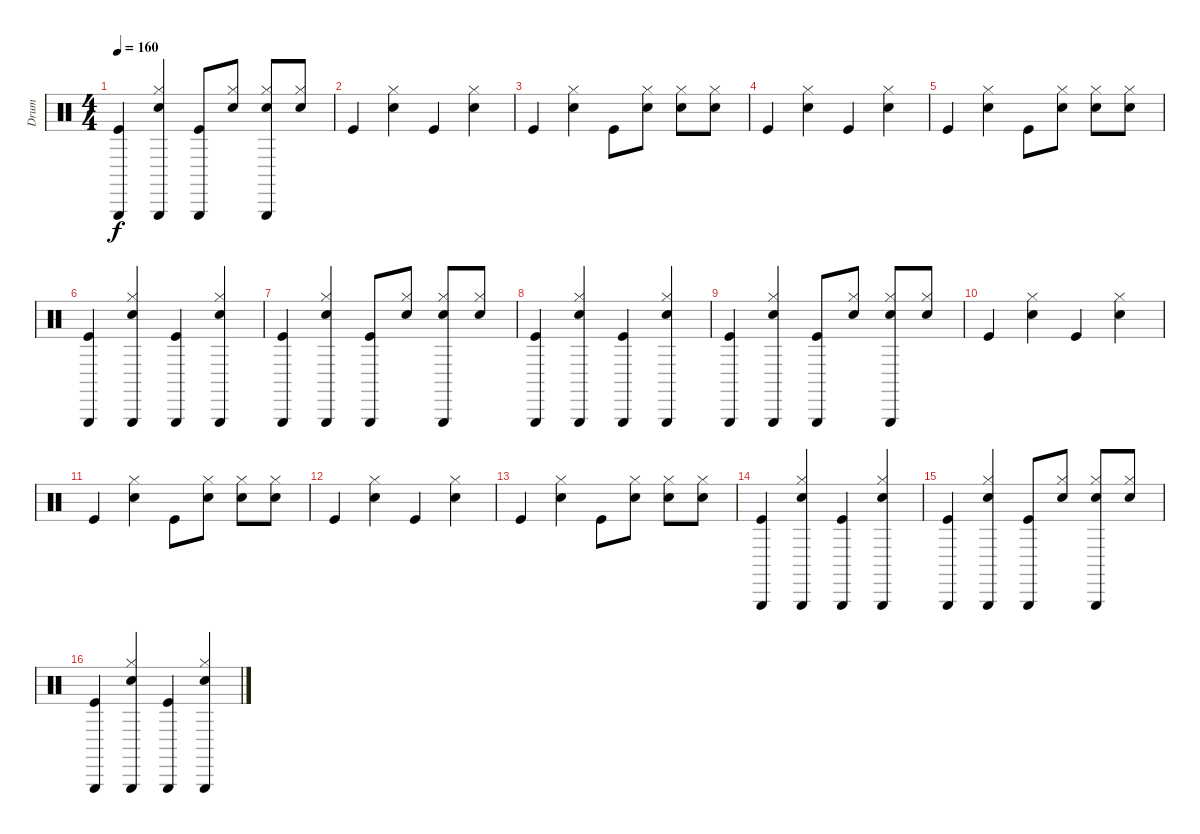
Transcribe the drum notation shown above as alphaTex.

\track ("Drum" "Drum") {instrument percussion}
\staff {score}
\articulation defaults
\ts (4 4)
\tempo 160
\clef neutral
\ks c
("Triangle (hit)" "Kick (hit)").4{dy f} ("Triangle (hit)" "Hi-Hat (closed)" "Snare (hit) 2").4 ("Triangle (hit)" "Kick (hit)").8 ("Hi-Hat (closed)" "Snare (hit) 2").8 ("Triangle (hit)" "Hi-Hat (closed)" "Snare (hit) 2").8 ("Hi-Hat (closed)" "Snare (hit) 2").8 |
"Kick (hit)".4 ("Hi-Hat (closed)" "Snare (hit) 2").4 "Kick (hit)".4 ("Hi-Hat (closed)" "Snare (hit) 2").4 |
"Kick (hit)".4 ("Hi-Hat (closed)" "Snare (hit) 2").4 "Kick (hit)".8 ("Hi-Hat (closed)" "Snare (hit) 2").8 ("Hi-Hat (closed)" "Snare (hit) 2").8 ("Hi-Hat (closed)" "Snare (hit) 2").8 |
"Kick (hit)".4 ("Hi-Hat (closed)" "Snare (hit) 2").4 "Kick (hit)".4 ("Hi-Hat (closed)" "Snare (hit) 2").4 |
"Kick (hit)".4 ("Hi-Hat (closed)" "Snare (hit) 2").4 "Kick (hit)".8 ("Hi-Hat (closed)" "Snare (hit) 2").8 ("Hi-Hat (closed)" "Snare (hit) 2").8 ("Hi-Hat (closed)" "Snare (hit) 2").8 |
("Triangle (hit)" "Kick (hit)").4 ("Triangle (hit)" "Hi-Hat (closed)" "Snare (hit) 2").4 ("Triangle (hit)" "Kick (hit)").4 ("Triangle (hit)" "Hi-Hat (closed)" "Snare (hit) 2").4 |
("Triangle (hit)" "Kick (hit)").4 ("Triangle (hit)" "Hi-Hat (closed)" "Snare (hit) 2").4 ("Triangle (hit)" "Kick (hit)").8 ("Hi-Hat (closed)" "Snare (hit) 2").8 ("Triangle (hit)" "Hi-Hat (closed)" "Snare (hit) 2").8 ("Hi-Hat (closed)" "Snare (hit) 2").8 |
("Triangle (hit)" "Kick (hit)").4 ("Triangle (hit)" "Hi-Hat (closed)" "Snare (hit) 2").4 ("Triangle (hit)" "Kick (hit)").4 ("Triangle (hit)" "Hi-Hat (closed)" "Snare (hit) 2").4 |
("Triangle (hit)" "Kick (hit)").4 ("Triangle (hit)" "Hi-Hat (closed)" "Snare (hit) 2").4 ("Triangle (hit)" "Kick (hit)").8 ("Hi-Hat (closed)" "Snare (hit) 2").8 ("Triangle (hit)" "Hi-Hat (closed)" "Snare (hit) 2").8 ("Hi-Hat (closed)" "Snare (hit) 2").8 |
"Kick (hit)".4 ("Hi-Hat (closed)" "Snare (hit) 2").4 "Kick (hit)".4 ("Hi-Hat (closed)" "Snare (hit) 2").4 |
"Kick (hit)".4 ("Hi-Hat (closed)" "Snare (hit) 2").4 "Kick (hit)".8 ("Hi-Hat (closed)" "Snare (hit) 2").8 ("Hi-Hat (closed)" "Snare (hit) 2").8 ("Hi-Hat (closed)" "Snare (hit) 2").8 |
"Kick (hit)".4 ("Hi-Hat (closed)" "Snare (hit) 2").4 "Kick (hit)".4 ("Hi-Hat (closed)" "Snare (hit) 2").4 |
"Kick (hit)".4 ("Hi-Hat (closed)" "Snare (hit) 2").4 "Kick (hit)".8 ("Hi-Hat (closed)" "Snare (hit) 2").8 ("Hi-Hat (closed)" "Snare (hit) 2").8 ("Hi-Hat (closed)" "Snare (hit) 2").8 |
("Triangle (hit)" "Kick (hit)").4 ("Triangle (hit)" "Hi-Hat (closed)" "Snare (hit) 2").4 ("Triangle (hit)" "Kick (hit)").4 ("Triangle (hit)" "Hi-Hat (closed)" "Snare (hit) 2").4 |
("Triangle (hit)" "Kick (hit)").4 ("Triangle (hit)" "Hi-Hat (closed)" "Snare (hit) 2").4 ("Triangle (hit)" "Kick (hit)").8 ("Hi-Hat (closed)" "Snare (hit) 2").8 ("Triangle (hit)" "Hi-Hat (closed)" "Snare (hit) 2").8 ("Hi-Hat (closed)" "Snare (hit) 2").8 |
("Triangle (hit)" "Kick (hit)").4 ("Triangle (hit)" "Hi-Hat (closed)" "Snare (hit) 2").4 ("Triangle (hit)" "Kick (hit)").4 ("Triangle (hit)" "Hi-Hat (closed)" "Snare (hit) 2").4
